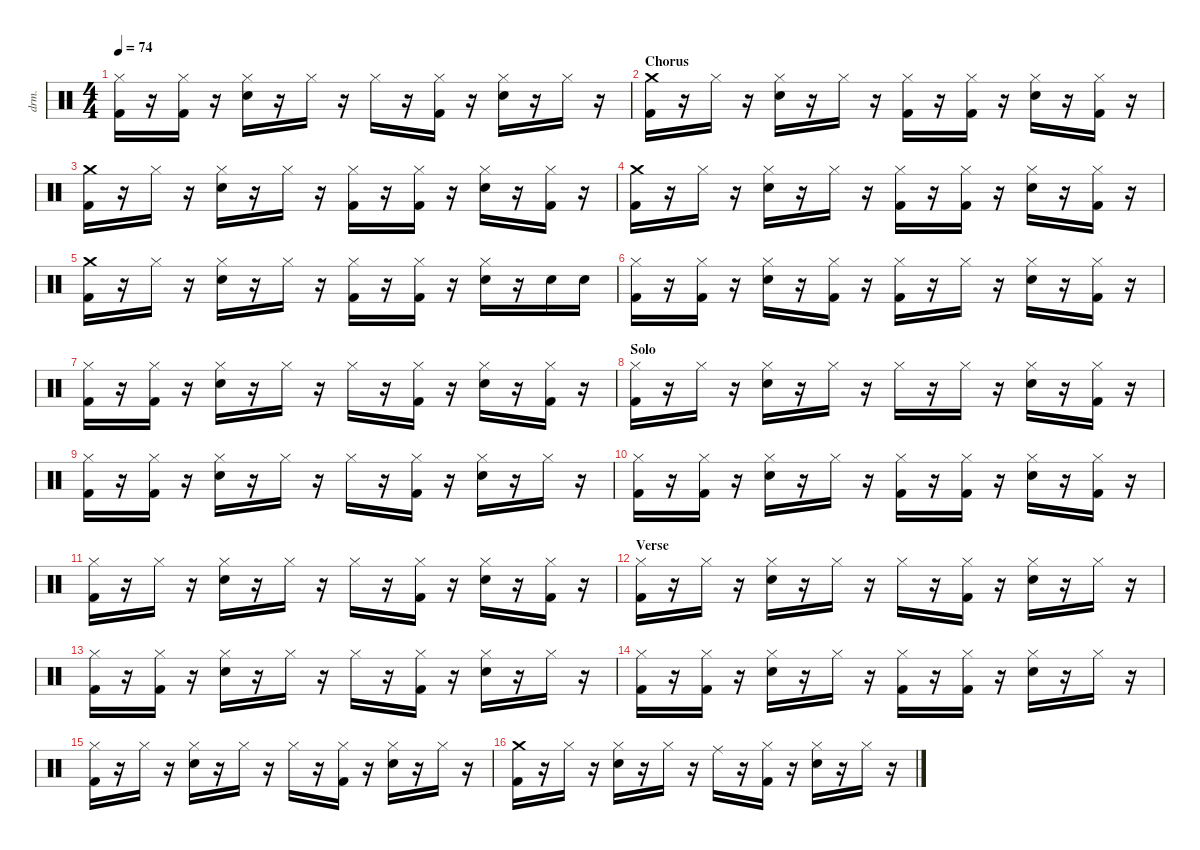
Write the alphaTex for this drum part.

\defaultSystemsLayout 4
\hideDynamics
\bracketExtendMode nobrackets
\track ("Dave Grohl" "drm.") {instrument percussion}
\staff {score}
\articulation defaults
\ts (4 4)
\tempo 74
\clef neutral
\ks c
("Hi-Hat (closed)" "Kick (hit) 2").16{dy f} r.16 ("Hi-Hat (closed)" "Kick (hit) 2").16 r.16 ("Hi-Hat (closed)" "Snare (hit) 2").16 r.16 "Hi-Hat (closed)".16 r.16 "Hi-Hat (closed)".16 r.16 ("Hi-Hat (closed)" "Kick (hit) 2").16 r.16 ("Hi-Hat (closed)" "Snare (hit) 2").16 r.16 "Hi-Hat (closed)".16 r.16 |
\section ("" "Chorus")
("Crash medium (hit)" "Kick (hit) 2").16 r.16 "Hi-Hat (closed)".16 r.16 ("Hi-Hat (closed)" "Snare (hit) 2").16 r.16 "Hi-Hat (closed)".16 r.16 ("Hi-Hat (closed)" "Kick (hit) 2").16 r.16 ("Hi-Hat (closed)" "Kick (hit) 2").16 r.16 ("Hi-Hat (closed)" "Snare (hit) 2").16 r.16 ("Hi-Hat (closed)" "Kick (hit) 2").16 r.16 |
("Crash medium (hit)" "Kick (hit) 2").16 r.16 "Hi-Hat (closed)".16 r.16 ("Hi-Hat (closed)" "Snare (hit) 2").16 r.16 "Hi-Hat (closed)".16 r.16 ("Hi-Hat (closed)" "Kick (hit) 2").16 r.16 ("Hi-Hat (closed)" "Kick (hit) 2").16 r.16 ("Hi-Hat (closed)" "Snare (hit) 2").16 r.16 ("Hi-Hat (closed)" "Kick (hit) 2").16 r.16 |
("Crash medium (hit)" "Kick (hit) 2").16 r.16 "Hi-Hat (closed)".16 r.16 ("Hi-Hat (closed)" "Snare (hit) 2").16 r.16 "Hi-Hat (closed)".16 r.16 ("Hi-Hat (closed)" "Kick (hit) 2").16 r.16 ("Hi-Hat (closed)" "Kick (hit) 2").16 r.16 ("Hi-Hat (closed)" "Snare (hit) 2").16 r.16 ("Hi-Hat (closed)" "Kick (hit) 2").16 r.16 |
("Crash medium (hit)" "Kick (hit) 2").16 r.16 "Hi-Hat (closed)".16 r.16 ("Hi-Hat (closed)" "Snare (hit) 2").16 r.16 "Hi-Hat (closed)".16 r.16 ("Hi-Hat (closed)" "Kick (hit) 2").16 r.16 ("Hi-Hat (closed)" "Kick (hit) 2").16 r.16 ("Hi-Hat (closed)" "Snare (hit) 2").16 r.16 "Snare (hit) 2".16 "Snare (hit) 2".16 |
("Hi-Hat (closed)" "Kick (hit) 2").16 r.16 ("Hi-Hat (closed)" "Kick (hit) 2").16 r.16 ("Hi-Hat (closed)" "Snare (hit) 2").16 r.16 ("Hi-Hat (closed)" "Kick (hit) 2").16 r.16 ("Hi-Hat (closed)" "Kick (hit) 2").16 r.16 "Hi-Hat (closed)".16 r.16 ("Hi-Hat (closed)" "Snare (hit) 2").16 r.16 ("Hi-Hat (closed)" "Kick (hit) 2").16 r.16 |
("Hi-Hat (closed)" "Kick (hit) 2").16 r.16 ("Hi-Hat (closed)" "Kick (hit) 2").16 r.16 ("Hi-Hat (closed)" "Snare (hit) 2").16 r.16 "Hi-Hat (closed)".16 r.16 "Hi-Hat (closed)".16 r.16 ("Hi-Hat (closed)" "Kick (hit) 2").16 r.16 ("Hi-Hat (closed)" "Snare (hit) 2").16 r.16 ("Hi-Hat (closed)" "Kick (hit) 2").16 r.16 |
\section ("" "Solo")
("Hi-Hat (closed)" "Kick (hit) 2").16 r.16 "Hi-Hat (closed)".16 r.16 ("Hi-Hat (closed)" "Snare (hit) 2").16 r.16 "Hi-Hat (closed)".16 r.16 "Hi-Hat (closed)".16 r.16 "Hi-Hat (closed)".16 r.16 ("Hi-Hat (closed)" "Snare (hit) 2").16 r.16 ("Hi-Hat (closed)" "Kick (hit) 2").16 r.16 |
("Hi-Hat (closed)" "Kick (hit) 2").16 r.16 ("Hi-Hat (closed)" "Kick (hit) 2").16 r.16 ("Hi-Hat (closed)" "Snare (hit) 2").16 r.16 "Hi-Hat (closed)".16 r.16 "Hi-Hat (closed)".16 r.16 ("Hi-Hat (closed)" "Kick (hit) 2").16 r.16 ("Hi-Hat (closed)" "Snare (hit) 2").16 r.16 "Hi-Hat (closed)".16 r.16 |
("Hi-Hat (closed)" "Kick (hit) 2").16 r.16 ("Hi-Hat (closed)" "Kick (hit) 2").16 r.16 ("Hi-Hat (closed)" "Snare (hit) 2").16 r.16 "Hi-Hat (closed)".16 r.16 ("Hi-Hat (closed)" "Kick (hit) 2").16 r.16 ("Hi-Hat (closed)" "Kick (hit) 2").16 r.16 ("Hi-Hat (closed)" "Snare (hit) 2").16 r.16 ("Hi-Hat (closed)" "Kick (hit) 2").16 r.16 |
("Hi-Hat (closed)" "Kick (hit) 2").16 r.16 "Hi-Hat (closed)".16 r.16 ("Hi-Hat (closed)" "Snare (hit) 2").16 r.16 "Hi-Hat (closed)".16 r.16 "Hi-Hat (closed)".16 r.16 ("Hi-Hat (closed)" "Kick (hit) 2").16 r.16 ("Hi-Hat (closed)" "Snare (hit) 2").16 r.16 ("Hi-Hat (closed)" "Kick (hit) 2").16 r.16 |
\section ("" "Verse")
("Hi-Hat (closed)" "Kick (hit) 2").16 r.16 "Hi-Hat (closed)".16 r.16 ("Hi-Hat (closed)" "Snare (hit) 2").16 r.16 "Hi-Hat (closed)".16 r.16 "Hi-Hat (closed)".16 r.16 ("Hi-Hat (closed)" "Kick (hit) 2").16 r.16 ("Hi-Hat (closed)" "Snare (hit) 2").16 r.16 "Hi-Hat (closed)".16 r.16 |
("Hi-Hat (closed)" "Kick (hit) 2").16 r.16 ("Hi-Hat (closed)" "Kick (hit) 2").16 r.16 ("Hi-Hat (closed)" "Snare (hit) 2").16 r.16 "Hi-Hat (closed)".16 r.16 "Hi-Hat (closed)".16 r.16 ("Hi-Hat (closed)" "Kick (hit) 2").16 r.16 ("Hi-Hat (closed)" "Snare (hit) 2").16 r.16 "Hi-Hat (closed)".16 r.16 |
("Hi-Hat (closed)" "Kick (hit) 2").16 r.16 ("Hi-Hat (closed)" "Kick (hit) 2").16 r.16 ("Hi-Hat (closed)" "Snare (hit) 2").16 r.16 "Hi-Hat (closed)".16 r.16 ("Hi-Hat (closed)" "Kick (hit) 2").16 r.16 ("Hi-Hat (closed)" "Kick (hit) 2").16 r.16 ("Hi-Hat (closed)" "Snare (hit) 2").16 r.16 "Hi-Hat (closed)".16 r.16 |
("Hi-Hat (closed)" "Kick (hit) 2").16 r.16 "Hi-Hat (closed)".16 r.16 ("Hi-Hat (closed)" "Snare (hit) 2").16 r.16 "Hi-Hat (closed)".16 r.16 "Hi-Hat (closed)".16 r.16 ("Hi-Hat (closed)" "Kick (hit) 2").16 r.16 ("Hi-Hat (closed)" "Snare (hit) 2").16 r.16 "Hi-Hat (closed)".16 r.16 |
("Crash medium (hit)" "Kick (hit) 2").16 r.16 "Hi-Hat (closed)".16 r.16 ("Hi-Hat (closed)" "Snare (hit) 2").16 r.16 "Hi-Hat (closed)".16 r.16 "Ride (middle)".16 r.16 ("Hi-Hat (closed)" "Kick (hit) 2").16 r.16 ("Hi-Hat (closed)" "Snare (hit) 2").16 r.16 "Hi-Hat (closed)".16 r.16
